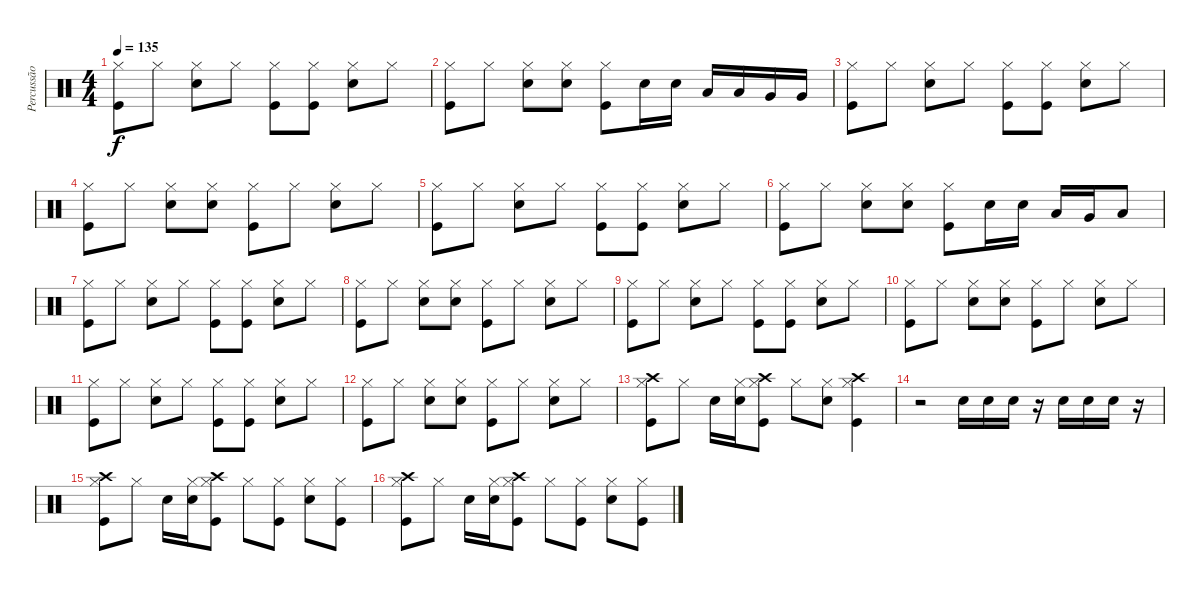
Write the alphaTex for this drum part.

\track ("Percussão" "Percussão") {instrument percussion}
\staff {score}
\articulation defaults
\ts (4 4)
\tempo 135
\clef neutral
\ks c
("Hi-Hat (closed)" "Kick (hit)").8{dy f} "Hi-Hat (closed)".8 ("Hi-Hat (closed)" "Snare (hit) 2").8 "Hi-Hat (closed)".8 ("Hi-Hat (closed)" "Kick (hit)").8 ("Hi-Hat (closed)" "Kick (hit)").8 ("Hi-Hat (closed)" "Snare (hit) 2").8 "Hi-Hat (closed)".8 |
("Hi-Hat (closed)" "Kick (hit)").8 "Hi-Hat (closed)".8 ("Hi-Hat (closed)" "Snare (hit) 2").8 ("Hi-Hat (closed)" "Snare (hit) 2").8 ("Hi-Hat (closed)" "Kick (hit)").8 "Snare (hit) 2".16 "Snare (hit) 2".16 "Low Tom (hit)".16 "Low Tom (hit)".16 "Very Low Tom (hit)".16 "Very Low Tom (hit)".16 |
("Hi-Hat (closed)" "Kick (hit)").8 "Hi-Hat (closed)".8 ("Hi-Hat (closed)" "Snare (hit) 2").8 "Hi-Hat (closed)".8 ("Hi-Hat (closed)" "Kick (hit)").8 ("Hi-Hat (closed)" "Kick (hit)").8 ("Hi-Hat (closed)" "Snare (hit) 2").8 "Hi-Hat (closed)".8 |
("Hi-Hat (closed)" "Kick (hit)").8 "Hi-Hat (closed)".8 ("Hi-Hat (closed)" "Snare (hit) 2").8 ("Hi-Hat (closed)" "Snare (hit) 2").8 ("Hi-Hat (closed)" "Kick (hit)").8 "Hi-Hat (closed)".8 ("Hi-Hat (closed)" "Snare (hit) 2").8 "Hi-Hat (closed)".8 |
("Hi-Hat (closed)" "Kick (hit)").8 "Hi-Hat (closed)".8 ("Hi-Hat (closed)" "Snare (hit) 2").8 "Hi-Hat (closed)".8 ("Hi-Hat (closed)" "Kick (hit)").8 ("Hi-Hat (closed)" "Kick (hit)").8 ("Hi-Hat (closed)" "Snare (hit) 2").8 "Hi-Hat (closed)".8 |
("Hi-Hat (closed)" "Kick (hit)").8 "Hi-Hat (closed)".8 ("Hi-Hat (closed)" "Snare (hit) 2").8 ("Hi-Hat (closed)" "Snare (hit) 2").8 ("Hi-Hat (closed)" "Kick (hit)").8 "Snare (hit) 2".16 "Snare (hit) 2".16 "Low Tom (hit)".16 "Very Low Tom (hit)".16 "Low Tom (hit)".8 |
("Hi-Hat (closed)" "Kick (hit)").8 "Hi-Hat (closed)".8 ("Hi-Hat (closed)" "Snare (hit) 2").8 "Hi-Hat (closed)".8 ("Hi-Hat (closed)" "Kick (hit)").8 ("Hi-Hat (closed)" "Kick (hit)").8 ("Hi-Hat (closed)" "Snare (hit) 2").8 "Hi-Hat (closed)".8 |
("Hi-Hat (closed)" "Kick (hit)").8 "Hi-Hat (closed)".8 ("Hi-Hat (closed)" "Snare (hit) 2").8 ("Hi-Hat (closed)" "Snare (hit) 2").8 ("Hi-Hat (closed)" "Kick (hit)").8 "Hi-Hat (closed)".8 ("Hi-Hat (closed)" "Snare (hit) 2").8 "Hi-Hat (closed)".8 |
("Hi-Hat (closed)" "Kick (hit)").8 "Hi-Hat (closed)".8 ("Hi-Hat (closed)" "Snare (hit) 2").8 "Hi-Hat (closed)".8 ("Hi-Hat (closed)" "Kick (hit)").8 ("Hi-Hat (closed)" "Kick (hit)").8 ("Hi-Hat (closed)" "Snare (hit) 2").8 "Hi-Hat (closed)".8 |
("Hi-Hat (closed)" "Kick (hit)").8 "Hi-Hat (closed)".8 ("Hi-Hat (closed)" "Snare (hit) 2").8 ("Hi-Hat (closed)" "Snare (hit) 2").8 ("Hi-Hat (closed)" "Kick (hit)").8 "Hi-Hat (closed)".8 ("Hi-Hat (closed)" "Snare (hit) 2").8 "Hi-Hat (closed)".8 |
("Hi-Hat (closed)" "Kick (hit)").8 "Hi-Hat (closed)".8 ("Hi-Hat (closed)" "Snare (hit) 2").8 "Hi-Hat (closed)".8 ("Hi-Hat (closed)" "Kick (hit)").8 ("Hi-Hat (closed)" "Kick (hit)").8 ("Hi-Hat (closed)" "Snare (hit) 2").8 "Hi-Hat (closed)".8 |
("Hi-Hat (closed)" "Kick (hit)").8 "Hi-Hat (closed)".8 ("Hi-Hat (closed)" "Snare (hit) 2").8 ("Hi-Hat (closed)" "Snare (hit) 2").8 ("Hi-Hat (closed)" "Kick (hit)").8 "Hi-Hat (closed)".8 ("Hi-Hat (closed)" "Snare (hit) 2").8 "Hi-Hat (closed)".8 |
("Crash high (hit)" "Hi-Hat (closed)" "Kick (hit)").8 "Hi-Hat (closed)".8 "Snare (hit) 2".16 ("Hi-Hat (closed)" "Snare (hit) 2").16 ("Crash high (hit)" "Hi-Hat (closed)" "Kick (hit)").8 "Hi-Hat (closed)".8 ("Hi-Hat (closed)" "Snare (hit) 2").8 ("Crash high (hit)" "Hi-Hat (closed)" "Kick (hit)").4 |
r.2 "Snare (hit) 2".16 "Snare (hit) 2".16 "Snare (hit) 2".16 r.16 "Snare (hit) 2".16 "Snare (hit) 2".16 "Snare (hit) 2".16 r.16 |
("Crash high (hit)" "Hi-Hat (closed)" "Kick (hit)").8 "Hi-Hat (closed)".8 "Snare (hit) 2".16 ("Hi-Hat (closed)" "Snare (hit) 2").16 ("Crash high (hit)" "Hi-Hat (closed)" "Kick (hit)").8 "Hi-Hat (closed)".8 ("Hi-Hat (closed)" "Kick (hit)").8 ("Hi-Hat (closed)" "Snare (hit) 2").8 ("Hi-Hat (closed)" "Kick (hit)").8 |
("Crash high (hit)" "Hi-Hat (closed)" "Kick (hit)").8 "Hi-Hat (closed)".8 "Snare (hit) 2".16 ("Hi-Hat (closed)" "Snare (hit) 2").16 ("Crash high (hit)" "Hi-Hat (closed)" "Kick (hit)").8 "Hi-Hat (closed)".8 ("Hi-Hat (closed)" "Kick (hit)").8 ("Hi-Hat (closed)" "Snare (hit) 2").8 ("Hi-Hat (closed)" "Kick (hit)").8
